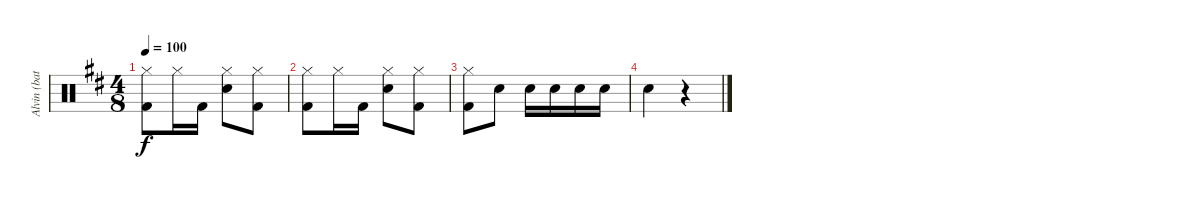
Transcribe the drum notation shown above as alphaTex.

\track ("Alvin (bateria)" "Alvin (bat") {instrument percussion}
\staff {score}
\articulation defaults
\ts (4 8)
\tempo 100
\clef neutral
\ks bminor
("Hi-Hat (closed)" "Kick (hit) 2").8{dy f} "Hi-Hat (closed)".16 "Kick (hit) 2".16 ("Hi-Hat (closed)" "Electric Snare (hit)").8 ("Hi-Hat (closed)" "Kick (hit) 2").8 |
("Hi-Hat (closed)" "Kick (hit) 2").8 "Hi-Hat (closed)".16 "Kick (hit) 2".16 ("Hi-Hat (closed)" "Electric Snare (hit)").8 ("Hi-Hat (closed)" "Kick (hit) 2").8 |
("Hi-Hat (closed)" "Kick (hit) 2").8 "Electric Snare (hit)".8 "Electric Snare (hit)".16 "Electric Snare (hit)".16 "Electric Snare (hit)".16 "Electric Snare (hit)".16 |
"Electric Snare (hit)".4 r.4
